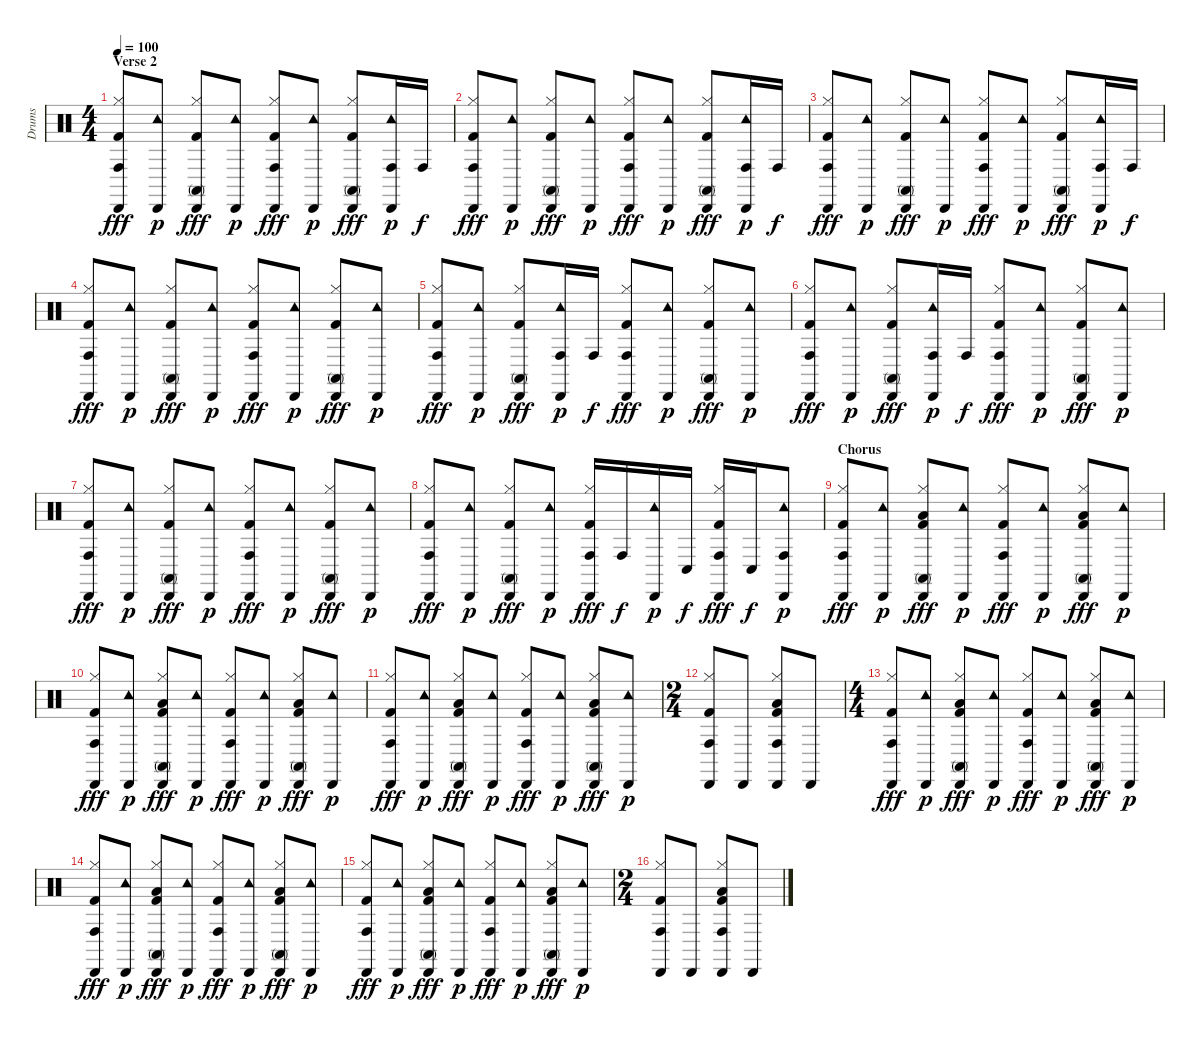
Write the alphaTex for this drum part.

\track ("Drums" "Drums") {instrument percussion}
\staff {score}
\articulation defaults
\ts (4 4)
\section ("" "Verse 2")
\tempo 100
\clef neutral
\ks c
("Cabasa (hit)" "Hi-Hat (closed)" "Conga high (hit)" "Kick (hit) 2").8{dy fff} ("Cabasa (hit)" "Tambourine (hit)").8{dy p} ("Cabasa (hit)" "Hi-Hat (closed)" "Conga high (mute)" "Kick (hit) 2").8{dy fff} ("Cabasa (hit)" "Tambourine (hit)").8{dy p} ("Cabasa (hit)" "Hi-Hat (closed)" "Conga high (hit)" "Kick (hit) 2").8{dy fff} ("Cabasa (hit)" "Tambourine (hit)").8{dy p} ("Cabasa (hit)" "Hi-Hat (closed)" "Conga high (mute)" "Kick (hit) 2").8{dy fff} ("Cabasa (hit)" "Tambourine (hit)" "Conga high (hit)").16{dy p} "Conga high (hit)".16{dy f} |
("Cabasa (hit)" "Hi-Hat (closed)" "Conga high (hit)" "Kick (hit) 2").8{dy fff} ("Cabasa (hit)" "Tambourine (hit)").8{dy p} ("Cabasa (hit)" "Hi-Hat (closed)" "Conga high (mute)" "Kick (hit) 2").8{dy fff} ("Cabasa (hit)" "Tambourine (hit)").8{dy p} ("Cabasa (hit)" "Hi-Hat (closed)" "Conga high (hit)" "Kick (hit) 2").8{dy fff} ("Cabasa (hit)" "Tambourine (hit)").8{dy p} ("Cabasa (hit)" "Hi-Hat (closed)" "Conga high (mute)" "Kick (hit) 2").8{dy fff} ("Cabasa (hit)" "Tambourine (hit)" "Conga high (hit)").16{dy p} "Conga high (hit)".16{dy f} |
("Cabasa (hit)" "Hi-Hat (closed)" "Conga high (hit)" "Kick (hit) 2").8{dy fff} ("Cabasa (hit)" "Tambourine (hit)").8{dy p} ("Cabasa (hit)" "Hi-Hat (closed)" "Conga high (mute)" "Kick (hit) 2").8{dy fff} ("Cabasa (hit)" "Tambourine (hit)").8{dy p} ("Cabasa (hit)" "Hi-Hat (closed)" "Conga high (hit)" "Kick (hit) 2").8{dy fff} ("Cabasa (hit)" "Tambourine (hit)").8{dy p} ("Cabasa (hit)" "Hi-Hat (closed)" "Conga high (mute)" "Kick (hit) 2").8{dy fff} ("Cabasa (hit)" "Tambourine (hit)" "Conga high (hit)").16{dy p} "Conga high (hit)".16{dy f} |
("Cabasa (hit)" "Hi-Hat (closed)" "Conga high (hit)" "Kick (hit) 2").8{dy fff} ("Cabasa (hit)" "Tambourine (hit)").8{dy p} ("Cabasa (hit)" "Hi-Hat (closed)" "Conga high (mute)" "Kick (hit) 2").8{dy fff} ("Cabasa (hit)" "Tambourine (hit)").8{dy p} ("Cabasa (hit)" "Hi-Hat (closed)" "Conga high (hit)" "Kick (hit) 2").8{dy fff} ("Cabasa (hit)" "Tambourine (hit)").8{dy p} ("Cabasa (hit)" "Hi-Hat (closed)" "Conga high (mute)" "Kick (hit) 2").8{dy fff} ("Cabasa (hit)" "Tambourine (hit)").8{dy p} |
("Cabasa (hit)" "Hi-Hat (closed)" "Conga high (hit)" "Kick (hit) 2").8{dy fff} ("Cabasa (hit)" "Tambourine (hit)").8{dy p} ("Cabasa (hit)" "Hi-Hat (closed)" "Conga high (mute)" "Kick (hit) 2").8{dy fff} ("Cabasa (hit)" "Tambourine (hit)" "Conga high (hit)").16{dy p} "Conga high (hit)".16{dy f} ("Cabasa (hit)" "Hi-Hat (closed)" "Conga high (hit)" "Kick (hit) 2").8{dy fff} ("Cabasa (hit)" "Tambourine (hit)").8{dy p} ("Cabasa (hit)" "Hi-Hat (closed)" "Conga high (mute)" "Kick (hit) 2").8{dy fff} ("Cabasa (hit)" "Tambourine (hit)").8{dy p} |
("Cabasa (hit)" "Hi-Hat (closed)" "Conga high (hit)" "Kick (hit) 2").8{dy fff} ("Cabasa (hit)" "Tambourine (hit)").8{dy p} ("Cabasa (hit)" "Hi-Hat (closed)" "Conga high (mute)" "Kick (hit) 2").8{dy fff} ("Cabasa (hit)" "Tambourine (hit)" "Conga high (hit)").16{dy p} "Conga high (hit)".16{dy f} ("Cabasa (hit)" "Hi-Hat (closed)" "Conga high (hit)" "Kick (hit) 2").8{dy fff} ("Cabasa (hit)" "Tambourine (hit)").8{dy p} ("Cabasa (hit)" "Hi-Hat (closed)" "Conga high (mute)" "Kick (hit) 2").8{dy fff} ("Cabasa (hit)" "Tambourine (hit)").8{dy p} |
("Cabasa (hit)" "Hi-Hat (closed)" "Conga high (hit)" "Kick (hit) 2").8{dy fff} ("Cabasa (hit)" "Tambourine (hit)").8{dy p} ("Cabasa (hit)" "Hi-Hat (closed)" "Conga high (mute)" "Kick (hit) 2").8{dy fff} ("Cabasa (hit)" "Tambourine (hit)").8{dy p} ("Cabasa (hit)" "Hi-Hat (closed)" "Conga high (hit)" "Kick (hit) 2").8{dy fff} ("Cabasa (hit)" "Tambourine (hit)").8{dy p} ("Cabasa (hit)" "Hi-Hat (closed)" "Conga high (mute)" "Kick (hit) 2").8{dy fff} ("Cabasa (hit)" "Tambourine (hit)").8{dy p} |
("Cabasa (hit)" "Hi-Hat (closed)" "Conga high (hit)" "Kick (hit) 2").8{dy fff} ("Cabasa (hit)" "Tambourine (hit)").8{dy p} ("Cabasa (hit)" "Hi-Hat (closed)" "Conga high (mute)" "Kick (hit) 2").8{dy fff} ("Cabasa (hit)" "Tambourine (hit)").8{dy p} ("Cabasa (hit)" "Hi-Hat (closed)" "Conga high (hit)" "Kick (hit) 2").16{dy fff} "Conga high (hit)".16{dy f} ("Cabasa (hit)" "Tambourine (hit)").16{dy p} "Conga low (hit)".16{dy f} ("Cabasa (hit)" "Hi-Hat (closed)" "Conga high (hit)" "Kick (hit) 2").16{dy fff} "Conga low (hit)".16{dy f} ("Cabasa (hit)" "Tambourine (hit)" "Conga high (hit)").8{dy p} |
\section ("" "Chorus")
("Cabasa (hit)" "Hi-Hat (closed)" "Conga high (hit)" "Kick (hit) 2").8{dy fff} ("Cabasa (hit)" "Tambourine (hit)").8{dy p} ("Cabasa (hit)" "Hi-Hat (closed)" "Conga high (mute)" "Low Tom (hit)" "Kick (hit) 2").8{dy fff} ("Cabasa (hit)" "Tambourine (hit)").8{dy p} ("Cabasa (hit)" "Hi-Hat (closed)" "Conga high (hit)" "Kick (hit) 2").8{dy fff} ("Cabasa (hit)" "Tambourine (hit)").8{dy p} ("Cabasa (hit)" "Hi-Hat (closed)" "Conga high (mute)" "Low Tom (hit)" "Kick (hit) 2").8{dy fff} ("Cabasa (hit)" "Tambourine (hit)").8{dy p} |
("Cabasa (hit)" "Hi-Hat (closed)" "Conga high (hit)" "Kick (hit) 2").8{dy fff} ("Cabasa (hit)" "Tambourine (hit)").8{dy p} ("Cabasa (hit)" "Hi-Hat (closed)" "Conga high (mute)" "Low Tom (hit)" "Kick (hit) 2").8{dy fff} ("Cabasa (hit)" "Tambourine (hit)").8{dy p} ("Cabasa (hit)" "Hi-Hat (closed)" "Conga high (hit)" "Kick (hit) 2").8{dy fff} ("Cabasa (hit)" "Tambourine (hit)").8{dy p} ("Cabasa (hit)" "Hi-Hat (closed)" "Conga high (mute)" "Low Tom (hit)" "Kick (hit) 2").8{dy fff} ("Cabasa (hit)" "Tambourine (hit)").8{dy p} |
("Cabasa (hit)" "Hi-Hat (closed)" "Conga high (hit)" "Kick (hit) 2").8{dy fff} ("Cabasa (hit)" "Tambourine (hit)").8{dy p} ("Cabasa (hit)" "Hi-Hat (closed)" "Conga high (mute)" "Low Tom (hit)" "Kick (hit) 2").8{dy fff} ("Cabasa (hit)" "Tambourine (hit)").8{dy p} ("Cabasa (hit)" "Hi-Hat (closed)" "Conga high (hit)" "Kick (hit) 2").8{dy fff} ("Cabasa (hit)" "Tambourine (hit)").8{dy p} ("Cabasa (hit)" "Hi-Hat (closed)" "Conga high (mute)" "Low Tom (hit)" "Kick (hit) 2").8{dy fff} ("Cabasa (hit)" "Tambourine (hit)").8{dy p} |
\ts (2 4)
("Cabasa (hit)" "Hi-Hat (closed)" "Conga high (hit)" "Kick (hit) 2").8 "Cabasa (hit)".8 ("Cabasa (hit)" "Hi-Hat (closed)" "Conga high (hit)" "Low Tom (hit)" "Kick (hit) 2").8 "Cabasa (hit)".8 |
\ts (4 4)
("Cabasa (hit)" "Hi-Hat (closed)" "Conga high (hit)" "Kick (hit) 2").8{dy fff} ("Cabasa (hit)" "Tambourine (hit)").8{dy p} ("Cabasa (hit)" "Hi-Hat (closed)" "Conga high (mute)" "Low Tom (hit)" "Kick (hit) 2").8{dy fff} ("Cabasa (hit)" "Tambourine (hit)").8{dy p} ("Cabasa (hit)" "Hi-Hat (closed)" "Conga high (hit)" "Kick (hit) 2").8{dy fff} ("Cabasa (hit)" "Tambourine (hit)").8{dy p} ("Cabasa (hit)" "Hi-Hat (closed)" "Conga high (mute)" "Low Tom (hit)" "Kick (hit) 2").8{dy fff} ("Cabasa (hit)" "Tambourine (hit)").8{dy p} |
("Cabasa (hit)" "Hi-Hat (closed)" "Conga high (hit)" "Kick (hit) 2").8{dy fff} ("Cabasa (hit)" "Tambourine (hit)").8{dy p} ("Cabasa (hit)" "Hi-Hat (closed)" "Conga high (mute)" "Low Tom (hit)" "Kick (hit) 2").8{dy fff} ("Cabasa (hit)" "Tambourine (hit)").8{dy p} ("Cabasa (hit)" "Hi-Hat (closed)" "Conga high (hit)" "Kick (hit) 2").8{dy fff} ("Cabasa (hit)" "Tambourine (hit)").8{dy p} ("Cabasa (hit)" "Hi-Hat (closed)" "Conga high (mute)" "Low Tom (hit)" "Kick (hit) 2").8{dy fff} ("Cabasa (hit)" "Tambourine (hit)").8{dy p} |
("Cabasa (hit)" "Hi-Hat (closed)" "Conga high (hit)" "Kick (hit) 2").8{dy fff} ("Cabasa (hit)" "Tambourine (hit)").8{dy p} ("Cabasa (hit)" "Hi-Hat (closed)" "Conga high (mute)" "Low Tom (hit)" "Kick (hit) 2").8{dy fff} ("Cabasa (hit)" "Tambourine (hit)").8{dy p} ("Cabasa (hit)" "Hi-Hat (closed)" "Conga high (hit)" "Kick (hit) 2").8{dy fff} ("Cabasa (hit)" "Tambourine (hit)").8{dy p} ("Cabasa (hit)" "Hi-Hat (closed)" "Conga high (mute)" "Low Tom (hit)" "Kick (hit) 2").8{dy fff} ("Cabasa (hit)" "Tambourine (hit)").8{dy p} |
\ts (2 4)
("Cabasa (hit)" "Hi-Hat (closed)" "Conga high (hit)" "Kick (hit) 2").8 "Cabasa (hit)".8 ("Cabasa (hit)" "Hi-Hat (closed)" "Conga high (hit)" "Low Tom (hit)" "Kick (hit) 2").8 "Cabasa (hit)".8
